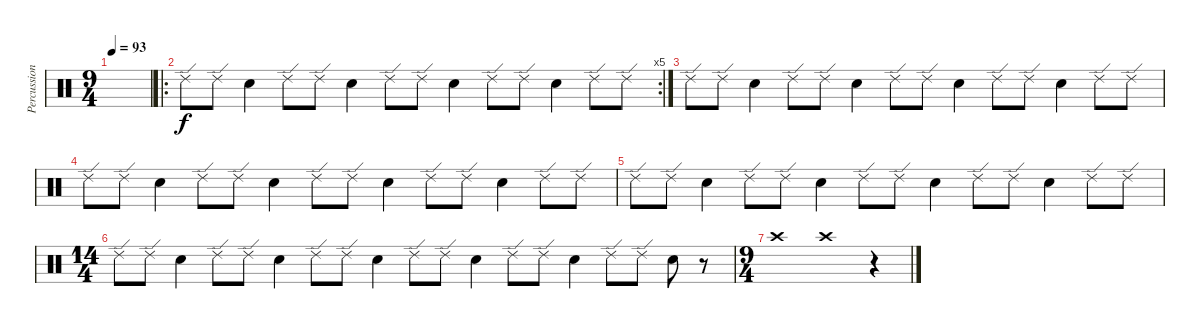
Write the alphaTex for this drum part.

\track ("Percussions" "Percussion") {instrument percussion}
\staff {score}
\articulation defaults
\ts (9 4)
\tempo 93
\clef neutral
\ks c
|
\ro
\rc 5 "Ride (edge) 2".8 "Ride (edge) 2".8 "Snare (hit) 2".4 "Ride (edge) 2".8 "Ride (edge) 2".8 "Snare (hit) 2".4 "Ride (edge) 2".8 "Ride (edge) 2".8 "Snare (hit) 2".4 "Ride (edge) 2".8 "Ride (edge) 2".8 "Snare (hit) 2".4 "Ride (edge) 2".8 "Ride (edge) 2".8
|
"Ride (edge) 2".8 "Ride (edge) 2".8 "Snare (hit) 2".4 "Ride (edge) 2".8 "Ride (edge) 2".8 "Snare (hit) 2".4 "Ride (edge) 2".8 "Ride (edge) 2".8 "Snare (hit) 2".4 "Ride (edge) 2".8 "Ride (edge) 2".8 "Snare (hit) 2".4 "Ride (edge) 2".8 "Ride (edge) 2".8 |
"Ride (edge) 2".8 "Ride (edge) 2".8 "Snare (hit) 2".4 "Ride (edge) 2".8 "Ride (edge) 2".8 "Snare (hit) 2".4 "Ride (edge) 2".8 "Ride (edge) 2".8 "Snare (hit) 2".4 "Ride (edge) 2".8 "Ride (edge) 2".8 "Snare (hit) 2".4 "Ride (edge) 2".8 "Ride (edge) 2".8 |
"Ride (edge) 2".8 "Ride (edge) 2".8 "Snare (hit) 2".4 "Ride (edge) 2".8 "Ride (edge) 2".8 "Snare (hit) 2".4 "Ride (edge) 2".8 "Ride (edge) 2".8 "Snare (hit) 2".4 "Ride (edge) 2".8 "Ride (edge) 2".8 "Snare (hit) 2".4 "Ride (edge) 2".8 "Ride (edge) 2".8 |
\ts (14 4)
"Ride (edge) 2".8 "Ride (edge) 2".8 "Snare (hit) 2".4 "Ride (edge) 2".8 "Ride (edge) 2".8 "Snare (hit) 2".4 "Ride (edge) 2".8 "Ride (edge) 2".8 "Snare (hit) 2".4 "Ride (edge) 2".8 "Ride (edge) 2".8 "Snare (hit) 2".4 "Ride (edge) 2".8 "Ride (edge) 2".8 "Snare (hit) 2".4 "Ride (edge) 2".8 "Ride (edge) 2".8 "Snare (hit) 2".8 r.8 |
\ts (9 4)
"Crash high (hit)".1 "Crash high (hit)".1 r.4
